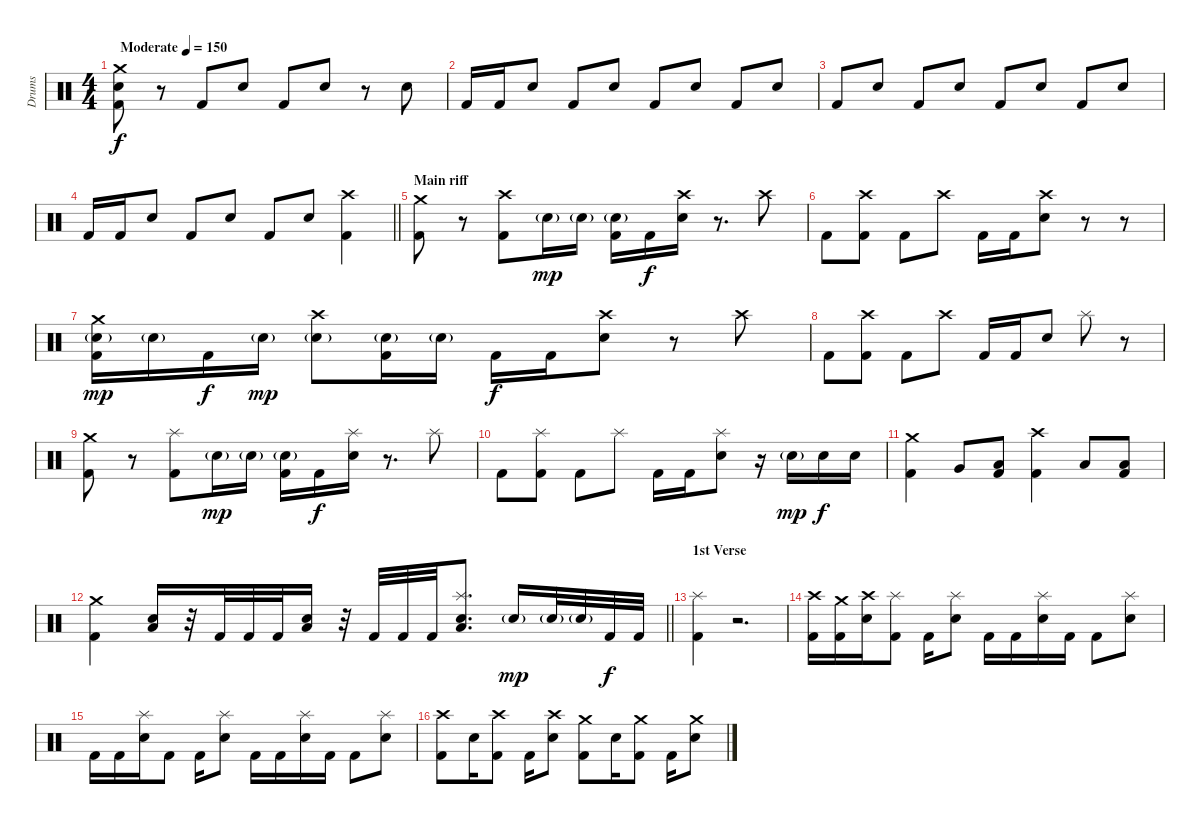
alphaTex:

\track ("Drums" "Drums") {instrument percussion}
\staff {score}
\articulation defaults
\ts (4 4)
\tempo (150 "Moderate")
\clef neutral
\ks c
("Crash medium (hit)" "Electric Snare (hit)" "Kick (hit) 2").8{dy f} r.8 "Kick (hit) 2".8 "Electric Snare (hit)".8 "Kick (hit) 2".8 "Electric Snare (hit)".8 r.8 "Electric Snare (hit)".8 |
"Kick (hit) 2".16 "Kick (hit) 2".16 "Electric Snare (hit)".8 "Kick (hit) 2".8 "Electric Snare (hit)".8 "Kick (hit) 2".8 "Electric Snare (hit)".8 "Kick (hit) 2".8 "Electric Snare (hit)".8 |
"Kick (hit) 2".8 "Electric Snare (hit)".8 "Kick (hit) 2".8 "Electric Snare (hit)".8 "Kick (hit) 2".8 "Electric Snare (hit)".8 "Kick (hit) 2".8 "Electric Snare (hit)".8 |
\barLineRight lightlight "Kick (hit) 2".16 "Kick (hit) 2".16 "Electric Snare (hit)".8 "Kick (hit) 2".8 "Electric Snare (hit)".8 "Kick (hit) 2".8 "Electric Snare (hit)".8
("Crash high (hit)" "Kick (hit) 2").4 |
\section ("" "Main riff")
("Crash medium (hit)" "Kick (hit) 2").8 r.8 ("Crash high (hit)" "Kick (hit) 2").8 "Electric Snare (hit)"{g}.16{dy mp} "Electric Snare (hit)"{g}.16 ("Electric Snare (hit)"{g} "Kick (hit) 2").16 "Kick (hit) 2".16{dy f} ("Crash high (hit)" "Electric Snare (hit)").16 r.8{d} "Crash high (hit)".8 |
"Kick (hit) 2".8 ("Crash high (hit)" "Kick (hit) 2").8 "Kick (hit) 2".8 "Crash high (hit)".8 "Kick (hit) 2".16 "Kick (hit) 2".16 ("Crash high (hit)" "Electric Snare (hit)").8 r.8 r.8 |
("Crash medium (hit)" "Electric Snare (hit)"{g} "Kick (hit) 2").16{dy mp} "Electric Snare (hit)"{g}.16 "Kick (hit) 2".16{dy f} "Electric Snare (hit)"{g}.16{dy mp} ("Crash high (hit)" "Electric Snare (hit)"{g}).8 ("Electric Snare (hit)"{g} "Kick (hit) 2").16 "Electric Snare (hit)"{g}.16 "Kick (hit) 2".16{dy f} "Kick (hit) 2".16 ("Crash high (hit)" "Electric Snare (hit)").8 r.8 "Crash high (hit)".8 |
"Kick (hit) 2".8 ("Crash high (hit)" "Kick (hit) 2").8 "Kick (hit) 2".8 "Crash high (hit)".8 "Kick (hit) 2".16 "Kick (hit) 2".16 "Electric Snare (hit)".8 "Splash (hit)".8 r.8 |
("Crash medium (hit)" "Kick (hit) 2").8 r.8 ("Splash (hit)" "Kick (hit) 2").8 "Electric Snare (hit)"{g}.16{dy mp} "Electric Snare (hit)"{g}.16 ("Electric Snare (hit)"{g} "Kick (hit) 2").16 "Kick (hit) 2".16{dy f} ("Splash (hit)" "Electric Snare (hit)").16 r.8{d} "Splash (hit)".8 |
"Kick (hit) 2".8 ("Splash (hit)" "Kick (hit) 2").8 "Kick (hit) 2".8 "Splash (hit)".8 "Kick (hit) 2".16 "Kick (hit) 2".16 ("Splash (hit)" "Electric Snare (hit)").8 r.16 "Electric Snare (hit)"{g}.16{dy mp} "Electric Snare (hit)".16{dy f} "Electric Snare (hit)".16 |
("Crash medium (hit)" "Kick (hit) 2").4 "Very Low Tom (hit)".8 ("Low Floor Tom (hit)" "Kick (hit) 2").8 ("Crash high (hit)" "Kick (hit) 2").4 "Low Tom (hit)".8 ("Low Floor Tom (hit)" "Kick (hit) 2").8 |
\barLineRight lightlight
("Crash medium (hit)" "Kick (hit) 2").4 ("Low Floor Tom (hit)" "Electric Snare (hit)").16 r.32 "Kick (hit) 2".32 "Kick (hit) 2".32 "Kick (hit) 2".32 ("Low Floor Tom (hit)" "Electric Snare (hit)").16 r.32 "Kick (hit) 2".32 "Kick (hit) 2".32 "Kick (hit) 2".32 ("Splash (hit)" "Low Floor Tom (hit)" "Electric Snare (hit)").8{d} "Electric Snare (hit)"{g}.16{dy mp} "Electric Snare (hit)"{g}.32 "Electric Snare (hit)"{g}.32 "Kick (hit) 2".32{dy f} "Kick (hit) 2".32 |
\section ("" "1st Verse")
("Splash (hit)" "Kick (hit) 2").4 r.2{d} |
("Crash high (hit)" "Kick (hit) 2").16 ("Crash medium (hit)" "Kick (hit) 2").16 ("Crash high (hit)" "Electric Snare (hit)").16 ("Splash (hit)" "Kick (hit) 2").8 "Kick (hit) 2".16 ("Splash (hit)" "Electric Snare (hit)").8 "Kick (hit) 2".16 "Kick (hit) 2".16 ("Splash (hit)" "Electric Snare (hit)").16 "Kick (hit) 2".16 "Kick (hit) 2".8 ("Splash (hit)" "Electric Snare (hit)").8 |
"Kick (hit) 2".16 "Kick (hit) 2".16 ("Splash (hit)" "Electric Snare (hit)").16 "Kick (hit) 2".8 "Kick (hit) 2".16 ("Splash (hit)" "Electric Snare (hit)").8 "Kick (hit) 2".16 "Kick (hit) 2".16 ("Splash (hit)" "Electric Snare (hit)").16 "Kick (hit) 2".16 "Kick (hit) 2".8 ("Splash (hit)" "Electric Snare (hit)").8 |
("Crash high (hit)" "Kick (hit) 2").8 "Electric Snare (hit)".16 ("Crash high (hit)" "Kick (hit) 2").8 "Kick (hit) 2".16 ("Crash high (hit)" "Electric Snare (hit)").8 ("Crash medium (hit)" "Kick (hit) 2").8 "Electric Snare (hit)".16 ("Crash medium (hit)" "Kick (hit) 2").8 "Kick (hit) 2".16 ("Crash medium (hit)" "Electric Snare (hit)").8
